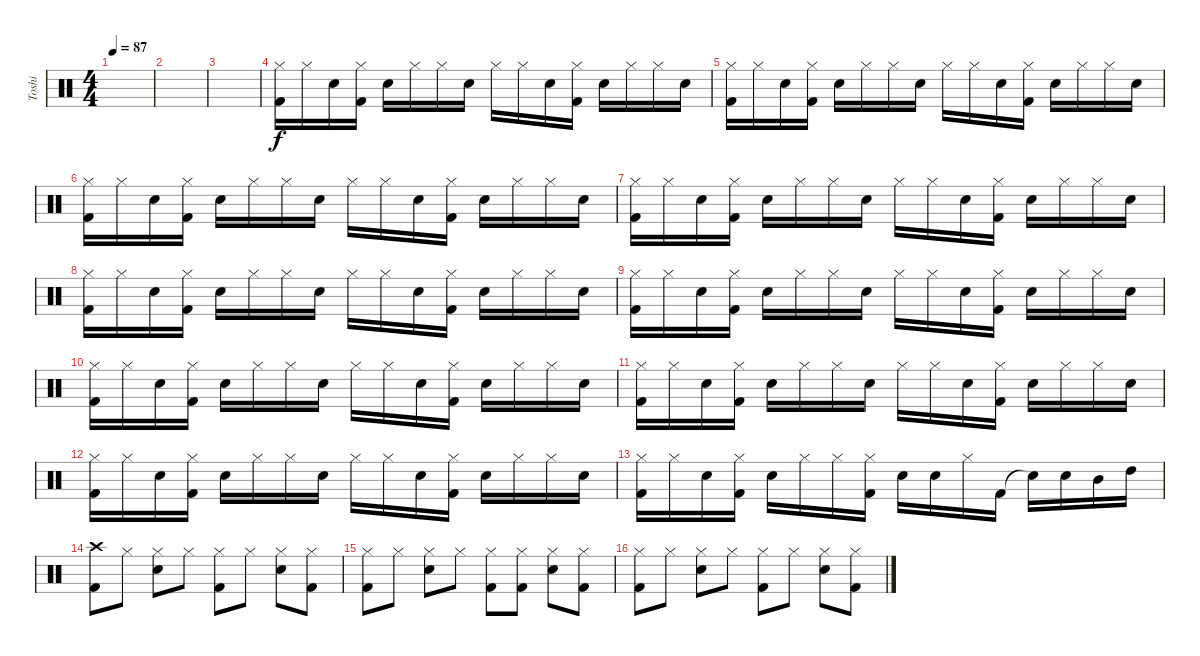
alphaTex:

\track ("Toshi" "Toshi") {instrument percussion}
\staff {score}
\articulation defaults
\ts (4 4)
\tempo 87
\clef neutral
\ks c
|
|
|
("Hi-Hat (closed)" "Kick (hit) 2").16 "Hi-Hat (closed)".16 "Snare (hit) 2".16 ("Hi-Hat (closed)" "Kick (hit) 2").16 "Snare (hit) 2".16 "Hi-Hat (closed)".16 "Hi-Hat (closed)".16 "Snare (hit) 2".16 "Hi-Hat (closed)".16 "Hi-Hat (closed)".16 "Snare (hit) 2".16 ("Hi-Hat (closed)" "Kick (hit) 2").16 "Snare (hit) 2".16 "Hi-Hat (closed)".16 "Hi-Hat (closed)".16 "Snare (hit) 2".16 |
("Hi-Hat (closed)" "Kick (hit) 2").16 "Hi-Hat (closed)".16 "Snare (hit) 2".16 ("Hi-Hat (closed)" "Kick (hit) 2").16 "Snare (hit) 2".16 "Hi-Hat (closed)".16 "Hi-Hat (closed)".16 "Snare (hit) 2".16 "Hi-Hat (closed)".16 "Hi-Hat (closed)".16 "Snare (hit) 2".16 ("Hi-Hat (closed)" "Kick (hit) 2").16 "Snare (hit) 2".16 "Hi-Hat (closed)".16 "Hi-Hat (closed)".16 "Snare (hit) 2".16 |
("Hi-Hat (closed)" "Kick (hit) 2").16 "Hi-Hat (closed)".16 "Snare (hit) 2".16 ("Hi-Hat (closed)" "Kick (hit) 2").16 "Snare (hit) 2".16 "Hi-Hat (closed)".16 "Hi-Hat (closed)".16 "Snare (hit) 2".16 "Hi-Hat (closed)".16 "Hi-Hat (closed)".16 "Snare (hit) 2".16 ("Hi-Hat (closed)" "Kick (hit) 2").16 "Snare (hit) 2".16 "Hi-Hat (closed)".16 "Hi-Hat (closed)".16 "Snare (hit) 2".16 |
("Hi-Hat (closed)" "Kick (hit) 2").16 "Hi-Hat (closed)".16 "Snare (hit) 2".16 ("Hi-Hat (closed)" "Kick (hit) 2").16 "Snare (hit) 2".16 "Hi-Hat (closed)".16 "Hi-Hat (closed)".16 "Snare (hit) 2".16 "Hi-Hat (closed)".16 "Hi-Hat (closed)".16 "Snare (hit) 2".16 ("Hi-Hat (closed)" "Kick (hit) 2").16 "Snare (hit) 2".16 "Hi-Hat (closed)".16 "Hi-Hat (closed)".16 "Snare (hit) 2".16 |
("Hi-Hat (closed)" "Kick (hit) 2").16 "Hi-Hat (closed)".16 "Snare (hit) 2".16 ("Hi-Hat (closed)" "Kick (hit) 2").16 "Snare (hit) 2".16 "Hi-Hat (closed)".16 "Hi-Hat (closed)".16 "Snare (hit) 2".16 "Hi-Hat (closed)".16 "Hi-Hat (closed)".16 "Snare (hit) 2".16 ("Hi-Hat (closed)" "Kick (hit) 2").16 "Snare (hit) 2".16 "Hi-Hat (closed)".16 "Hi-Hat (closed)".16 "Snare (hit) 2".16 |
("Hi-Hat (closed)" "Kick (hit) 2").16 "Hi-Hat (closed)".16 "Snare (hit) 2".16 ("Hi-Hat (closed)" "Kick (hit) 2").16 "Snare (hit) 2".16 "Hi-Hat (closed)".16 "Hi-Hat (closed)".16 "Snare (hit) 2".16 "Hi-Hat (closed)".16 "Hi-Hat (closed)".16 "Snare (hit) 2".16 ("Hi-Hat (closed)" "Kick (hit) 2").16 "Snare (hit) 2".16 "Hi-Hat (closed)".16 "Hi-Hat (closed)".16 "Snare (hit) 2".16 |
("Hi-Hat (closed)" "Kick (hit) 2").16 "Hi-Hat (closed)".16 "Snare (hit) 2".16 ("Hi-Hat (closed)" "Kick (hit) 2").16 "Snare (hit) 2".16 "Hi-Hat (closed)".16 "Hi-Hat (closed)".16 "Snare (hit) 2".16 "Hi-Hat (closed)".16 "Hi-Hat (closed)".16 "Snare (hit) 2".16 ("Hi-Hat (closed)" "Kick (hit) 2").16 "Snare (hit) 2".16 "Hi-Hat (closed)".16 "Hi-Hat (closed)".16 "Snare (hit) 2".16 |
("Hi-Hat (closed)" "Kick (hit) 2").16 "Hi-Hat (closed)".16 "Snare (hit) 2".16 ("Hi-Hat (closed)" "Kick (hit) 2").16 "Snare (hit) 2".16 "Hi-Hat (closed)".16 "Hi-Hat (closed)".16 "Snare (hit) 2".16 "Hi-Hat (closed)".16 "Hi-Hat (closed)".16 "Snare (hit) 2".16 ("Hi-Hat (closed)" "Kick (hit) 2").16 "Snare (hit) 2".16 "Hi-Hat (closed)".16 "Hi-Hat (closed)".16 "Snare (hit) 2".16 |
("Hi-Hat (closed)" "Kick (hit) 2").16 "Hi-Hat (closed)".16 "Snare (hit) 2".16 ("Hi-Hat (closed)" "Kick (hit) 2").16 "Snare (hit) 2".16 "Hi-Hat (closed)".16 "Hi-Hat (closed)".16 "Snare (hit) 2".16 "Hi-Hat (closed)".16 "Hi-Hat (closed)".16 "Snare (hit) 2".16 ("Hi-Hat (closed)" "Kick (hit) 2").16 "Snare (hit) 2".16 "Hi-Hat (closed)".16 "Hi-Hat (closed)".16 "Snare (hit) 2".16 |
("Hi-Hat (closed)" "Kick (hit) 2").16 "Hi-Hat (closed)".16 "Snare (hit) 2".16 ("Hi-Hat (closed)" "Kick (hit) 2").16 "Snare (hit) 2".16 "Hi-Hat (closed)".16 "Hi-Hat (closed)".16 ("Hi-Hat (closed)" "Kick (hit) 2").16 "Snare (hit) 2".16 "Snare (hit) 2".16 "Hi-Hat (closed)".16 "Kick (hit) 2".16 "Snare (hit)"{t}.16 "Snare (hit) 2".16 "Mid Tom (hit)".16 "High Tom (hit)".16 |
("Crash high (hit)" "Kick (hit) 2").8 "Hi-Hat (closed)".8 ("Hi-Hat (closed)" "Snare (hit) 2").8 "Hi-Hat (closed)".8 ("Hi-Hat (closed)" "Kick (hit) 2").8 "Hi-Hat (closed)".8 ("Hi-Hat (closed)" "Snare (hit) 2").8 ("Hi-Hat (closed)" "Kick (hit) 2").8 |
("Hi-Hat (closed)" "Kick (hit) 2").8 "Hi-Hat (closed)".8 ("Hi-Hat (closed)" "Snare (hit) 2").8 "Hi-Hat (closed)".8 ("Hi-Hat (closed)" "Kick (hit) 2").8 ("Hi-Hat (closed)" "Kick (hit) 2").8 ("Hi-Hat (closed)" "Snare (hit) 2").8 ("Hi-Hat (closed)" "Kick (hit) 2").8 |
("Hi-Hat (closed)" "Kick (hit) 2").8 "Hi-Hat (closed)".8 ("Hi-Hat (closed)" "Snare (hit) 2").8 "Hi-Hat (closed)".8 ("Hi-Hat (closed)" "Kick (hit) 2").8 "Hi-Hat (closed)".8 ("Hi-Hat (closed)" "Snare (hit) 2").8 ("Hi-Hat (closed)" "Kick (hit) 2").8
